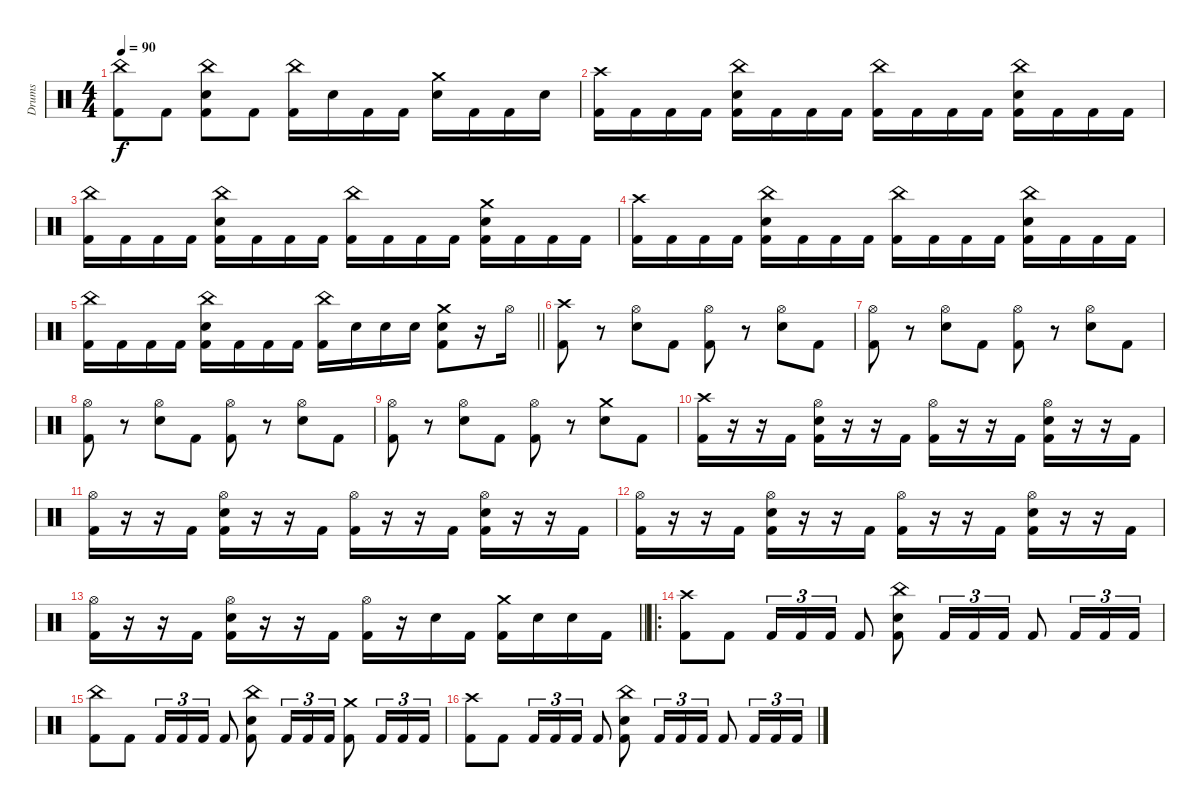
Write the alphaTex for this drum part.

\track ("Drums" "Drums") {instrument percussion}
\staff {score}
\articulation defaults
\ts (4 4)
\tempo 90
\clef neutral
\ks c
("China (hit)" "Kick (hit) 2").8{dy f} "Kick (hit) 2".8 ("China (hit)" "Electric Snare (hit)" "Kick (hit) 2").8 "Kick (hit) 2".8 ("China (hit)" "Kick (hit) 2").16 "Electric Snare (hit)".16 "Kick (hit) 2".16 "Kick (hit) 2".16 ("Crash medium (hit)" "Electric Snare (hit)").16 "Kick (hit) 2".16 "Kick (hit) 2".16 "Electric Snare (hit)".16 |
("Crash high (hit)" "Kick (hit) 2").16 "Kick (hit) 2".16 "Kick (hit) 2".16 "Kick (hit) 2".16 ("China (hit)" "Electric Snare (hit)" "Kick (hit) 2").16 "Kick (hit) 2".16 "Kick (hit) 2".16 "Kick (hit) 2".16 ("China (hit)" "Kick (hit) 2").16 "Kick (hit) 2".16 "Kick (hit) 2".16 "Kick (hit) 2".16 ("China (hit)" "Electric Snare (hit)" "Kick (hit) 2").16 "Kick (hit) 2".16 "Kick (hit) 2".16 "Kick (hit) 2".16 |
("China (hit)" "Kick (hit) 2").16 "Kick (hit) 2".16 "Kick (hit) 2".16 "Kick (hit) 2".16 ("China (hit)" "Electric Snare (hit)" "Kick (hit) 2").16 "Kick (hit) 2".16 "Kick (hit) 2".16 "Kick (hit) 2".16 ("China (hit)" "Kick (hit) 2").16 "Kick (hit) 2".16 "Kick (hit) 2".16 "Kick (hit) 2".16 ("Crash medium (hit)" "Electric Snare (hit)" "Kick (hit) 2").16 "Kick (hit) 2".16 "Kick (hit) 2".16 "Kick (hit) 2".16 |
("Crash high (hit)" "Kick (hit) 2").16 "Kick (hit) 2".16 "Kick (hit) 2".16 "Kick (hit) 2".16 ("China (hit)" "Electric Snare (hit)" "Kick (hit) 2").16 "Kick (hit) 2".16 "Kick (hit) 2".16 "Kick (hit) 2".16 ("China (hit)" "Kick (hit) 2").16 "Kick (hit) 2".16 "Kick (hit) 2".16 "Kick (hit) 2".16 ("China (hit)" "Electric Snare (hit)" "Kick (hit) 2").16 "Kick (hit) 2".16 "Kick (hit) 2".16 "Kick (hit) 2".16 |
\barLineRight lightlight
("China (hit)" "Kick (hit) 2").16 "Kick (hit) 2".16 "Kick (hit) 2".16 "Kick (hit) 2".16 ("China (hit)" "Electric Snare (hit)" "Kick (hit) 2").16 "Kick (hit) 2".16 "Kick (hit) 2".16 "Kick (hit) 2".16 ("China (hit)" "Kick (hit) 2").16 "Electric Snare (hit)".16 "Electric Snare (hit)".16 "Electric Snare (hit)".16 ("Crash medium (hit)" "Snare (hit) 2" "Kick (hit) 2").8 r.16 "Hi-Hat (open)".16 |
\section ("" "")
("Crash high (hit)" "Kick (hit) 2").8 r.8 ("Hi-Hat (open)" "Electric Snare (hit)").8 "Kick (hit) 2".8 ("Hi-Hat (open)" "Kick (hit) 2").8 r.8 ("Hi-Hat (open)" "Electric Snare (hit)").8 "Kick (hit) 2".8 |
("Hi-Hat (open)" "Kick (hit) 2").8 r.8 ("Hi-Hat (open)" "Electric Snare (hit)").8 "Kick (hit) 2".8 ("Hi-Hat (open)" "Kick (hit) 2").8 r.8 ("Hi-Hat (open)" "Electric Snare (hit)").8 "Kick (hit) 2".8 |
("Hi-Hat (open)" "Kick (hit) 2").8 r.8 ("Hi-Hat (open)" "Electric Snare (hit)").8 "Kick (hit) 2".8 ("Hi-Hat (open)" "Kick (hit) 2").8 r.8 ("Hi-Hat (open)" "Electric Snare (hit)").8 "Kick (hit) 2".8 |
("Hi-Hat (open)" "Kick (hit) 2").8 r.8 ("Hi-Hat (open)" "Electric Snare (hit)").8 "Kick (hit) 2".8 ("Hi-Hat (open)" "Kick (hit) 2").8 r.8 ("Crash medium (hit)" "Snare (hit) 2").8 "Kick (hit) 2".8 |
("Crash high (hit)" "Kick (hit) 2").16 r.16 r.16 "Kick (hit) 2".16 ("Hi-Hat (open)" "Electric Snare (hit)" "Kick (hit) 2").16 r.16 r.16 "Kick (hit) 2".16 ("Hi-Hat (open)" "Kick (hit) 2").16 r.16 r.16 "Kick (hit) 2".16 ("Hi-Hat (open)" "Electric Snare (hit)" "Kick (hit) 2").16 r.16 r.16 "Kick (hit) 2".16 |
("Hi-Hat (open)" "Kick (hit) 2").16 r.16 r.16 "Kick (hit) 2".16 ("Hi-Hat (open)" "Electric Snare (hit)" "Kick (hit) 2").16 r.16 r.16 "Kick (hit) 2".16 ("Hi-Hat (open)" "Kick (hit) 2").16 r.16 r.16 "Kick (hit) 2".16 ("Hi-Hat (open)" "Electric Snare (hit)" "Kick (hit) 2").16 r.16 r.16 "Kick (hit) 2".16 |
("Hi-Hat (open)" "Kick (hit) 2").16 r.16 r.16 "Kick (hit) 2".16 ("Hi-Hat (open)" "Electric Snare (hit)" "Kick (hit) 2").16 r.16 r.16 "Kick (hit) 2".16 ("Hi-Hat (open)" "Kick (hit) 2").16 r.16 r.16 "Kick (hit) 2".16 ("Hi-Hat (open)" "Electric Snare (hit)" "Kick (hit) 2").16 r.16 r.16 "Kick (hit) 2".16 |
\barLineRight lightlight
("Hi-Hat (open)" "Kick (hit) 2").16 r.16 r.16 "Kick (hit) 2".16 ("Hi-Hat (open)" "Electric Snare (hit)" "Kick (hit) 2").16 r.16 r.16 "Kick (hit) 2".16 ("Hi-Hat (open)" "Kick (hit) 2").16 r.16 "Electric Snare (hit)".16 "Kick (hit) 2".16 ("Crash medium (hit)" "Kick (hit) 2").16 "Snare (hit) 2".16 "Snare (hit) 2".16 "Kick (hit) 2".16 |
\ro
\section ("" "")
("Crash high (hit)" "Kick (hit) 2").8 "Kick (hit) 2".8 "Kick (hit) 2".16{tu (3 2)} "Kick (hit) 2".16{tu (3 2)} "Kick (hit) 2".16{tu (3 2)} "Kick (hit) 2".8 ("China (hit)" "Electric Snare (hit)" "Kick (hit) 2").8 "Kick (hit) 2".16{tu (3 2)} "Kick (hit) 2".16{tu (3 2)} "Kick (hit) 2".16{tu (3 2)} "Kick (hit) 2".8 "Kick (hit) 2".16{tu (3 2)} "Kick (hit) 2".16{tu (3 2)} "Kick (hit) 2".16{tu (3 2)} |
("China (hit)" "Kick (hit) 2").8 "Kick (hit) 2".8 "Kick (hit) 2".16{tu (3 2)} "Kick (hit) 2".16{tu (3 2)} "Kick (hit) 2".16{tu (3 2)} "Kick (hit) 2".8 ("China (hit)" "Electric Snare (hit)" "Kick (hit) 2").8 "Kick (hit) 2".16{tu (3 2)} "Kick (hit) 2".16{tu (3 2)} "Kick (hit) 2".16{tu (3 2)} ("Crash medium (hit)" "Kick (hit) 2").8 "Kick (hit) 2".16{tu (3 2)} "Kick (hit) 2".16{tu (3 2)} "Kick (hit) 2".16{tu (3 2)} |
("Crash high (hit)" "Kick (hit) 2").8 "Kick (hit) 2".8 "Kick (hit) 2".16{tu (3 2)} "Kick (hit) 2".16{tu (3 2)} "Kick (hit) 2".16{tu (3 2)} "Kick (hit) 2".8 ("China (hit)" "Electric Snare (hit)" "Kick (hit) 2").8 "Kick (hit) 2".16{tu (3 2)} "Kick (hit) 2".16{tu (3 2)} "Kick (hit) 2".16{tu (3 2)} "Kick (hit) 2".8 "Kick (hit) 2".16{tu (3 2)} "Kick (hit) 2".16{tu (3 2)} "Kick (hit) 2".16{tu (3 2)}
